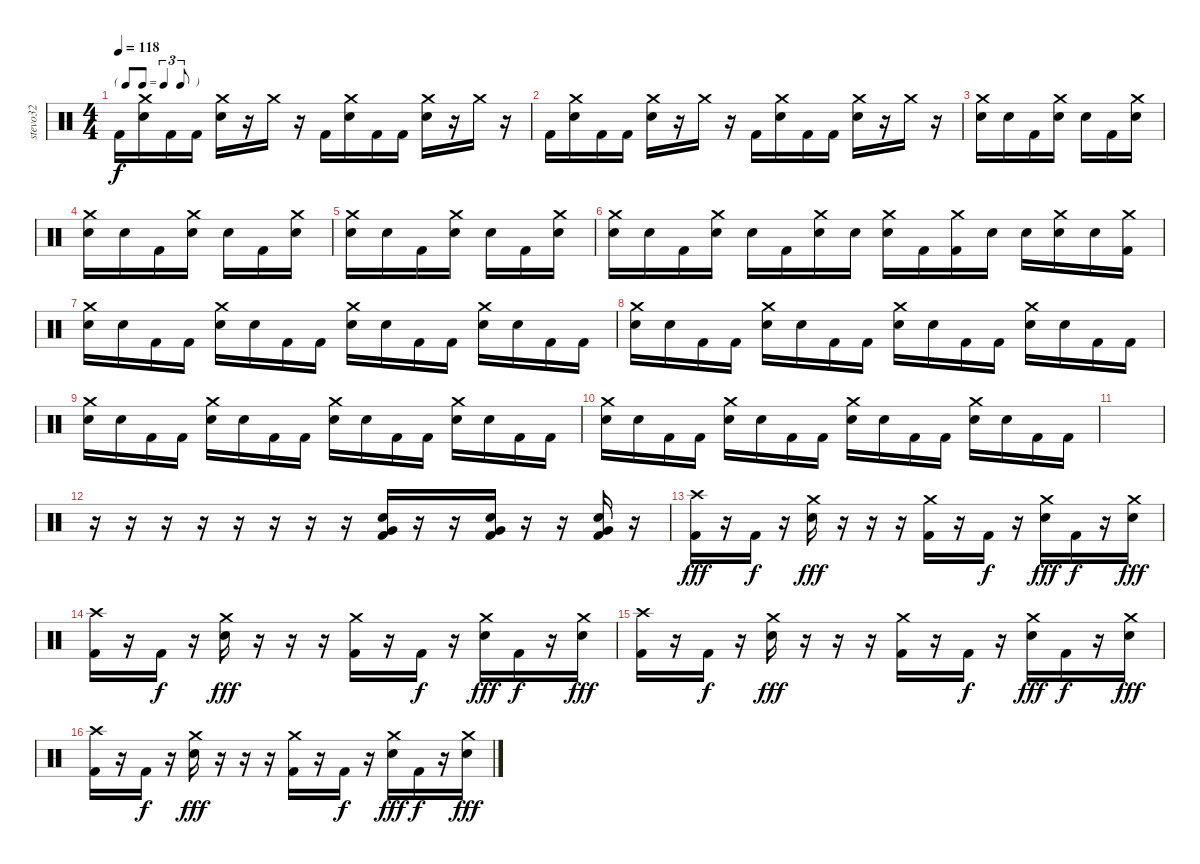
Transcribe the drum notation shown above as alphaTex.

\track ("stevo32" "stevo32") {instrument percussion}
\staff {score}
\articulation defaults
\ts (4 4)
\tf triplet8th
\tempo 118
\clef neutral
\ks c "Kick (hit) 2".16{dy f}
("Crash medium (hit)" "Electric Snare (hit)").16 "Kick (hit) 2".16 "Kick (hit) 2".16 ("Crash medium (hit)" "Electric Snare (hit)").16 r.16 "Crash medium (hit)".16 r.16 "Kick (hit) 2".16 ("Crash medium (hit)" "Electric Snare (hit)").16 "Kick (hit) 2".16 "Kick (hit) 2".16 ("Crash medium (hit)" "Electric Snare (hit)").16 r.16 "Crash medium (hit)".16 r.16 |
"Kick (hit) 2".16 ("Crash medium (hit)" "Electric Snare (hit)").16 "Kick (hit) 2".16 "Kick (hit) 2".16 ("Crash medium (hit)" "Electric Snare (hit)").16 r.16 "Crash medium (hit)".16 r.16 "Kick (hit) 2".16 ("Crash medium (hit)" "Electric Snare (hit)").16 "Kick (hit) 2".16 "Kick (hit) 2".16 ("Crash medium (hit)" "Electric Snare (hit)").16 r.16 "Crash medium (hit)".16 r.16 |
("Crash medium (hit)" "Electric Snare (hit)").16 "Electric Snare (hit)".16 "Kick (hit) 2".16 ("Crash medium (hit)" "Electric Snare (hit)").16 "Electric Snare (hit)".16 "Kick (hit) 2".16 ("Crash medium (hit)" "Electric Snare (hit)").16 |
("Crash medium (hit)" "Electric Snare (hit)").16 "Electric Snare (hit)".16 "Kick (hit) 2".16 ("Crash medium (hit)" "Electric Snare (hit)").16 "Electric Snare (hit)".16 "Kick (hit) 2".16 ("Crash medium (hit)" "Electric Snare (hit)").16 |
("Crash medium (hit)" "Electric Snare (hit)").16 "Electric Snare (hit)".16 "Kick (hit) 2".16 ("Crash medium (hit)" "Electric Snare (hit)").16 "Electric Snare (hit)".16 "Kick (hit) 2".16 ("Crash medium (hit)" "Electric Snare (hit)").16 |
("Crash medium (hit)" "Electric Snare (hit)").16 "Electric Snare (hit)".16 "Kick (hit) 2".16 ("Crash medium (hit)" "Electric Snare (hit)").16 "Electric Snare (hit)".16 "Kick (hit) 2".16 ("Crash medium (hit)" "Electric Snare (hit)").16 "Electric Snare (hit)".16 ("Crash medium (hit)" "Electric Snare (hit)").16 "Kick (hit) 2".16 ("Crash medium (hit)" "Kick (hit) 2").16 "Electric Snare (hit)".16 "Electric Snare (hit)".16 ("Crash medium (hit)" "Electric Snare (hit)").16 "Electric Snare (hit)".16 ("Crash medium (hit)" "Kick (hit) 2").16 |
("Crash medium (hit)" "Electric Snare (hit)").16 "Electric Snare (hit)".16 "Kick (hit) 2".16 "Kick (hit) 2".16 ("Crash medium (hit)" "Electric Snare (hit)").16 "Electric Snare (hit)".16 "Kick (hit) 2".16 "Kick (hit) 2".16 ("Crash medium (hit)" "Electric Snare (hit)").16 "Electric Snare (hit)".16 "Kick (hit) 2".16 "Kick (hit) 2".16 ("Crash medium (hit)" "Electric Snare (hit)").16 "Electric Snare (hit)".16 "Kick (hit) 2".16 "Kick (hit) 2".16 |
("Crash medium (hit)" "Electric Snare (hit)").16 "Electric Snare (hit)".16 "Kick (hit) 2".16 "Kick (hit) 2".16 ("Crash medium (hit)" "Electric Snare (hit)").16 "Electric Snare (hit)".16 "Kick (hit) 2".16 "Kick (hit) 2".16 ("Crash medium (hit)" "Electric Snare (hit)").16 "Electric Snare (hit)".16 "Kick (hit) 2".16 "Kick (hit) 2".16 ("Crash medium (hit)" "Electric Snare (hit)").16 "Electric Snare (hit)".16 "Kick (hit) 2".16 "Kick (hit) 2".16 |
("Crash medium (hit)" "Electric Snare (hit)").16 "Electric Snare (hit)".16 "Kick (hit) 2".16 "Kick (hit) 2".16 ("Crash medium (hit)" "Electric Snare (hit)").16 "Electric Snare (hit)".16 "Kick (hit) 2".16 "Kick (hit) 2".16 ("Crash medium (hit)" "Electric Snare (hit)").16 "Electric Snare (hit)".16 "Kick (hit) 2".16 "Kick (hit) 2".16 ("Crash medium (hit)" "Electric Snare (hit)").16 "Electric Snare (hit)".16 "Kick (hit) 2".16 "Kick (hit) 2".16 |
("Crash medium (hit)" "Electric Snare (hit)").16 "Electric Snare (hit)".16 "Kick (hit) 2".16 "Kick (hit) 2".16 ("Crash medium (hit)" "Electric Snare (hit)").16 "Electric Snare (hit)".16 "Kick (hit) 2".16 "Kick (hit) 2".16 ("Crash medium (hit)" "Electric Snare (hit)").16 "Electric Snare (hit)".16 "Kick (hit) 2".16 "Kick (hit) 2".16 ("Crash medium (hit)" "Electric Snare (hit)").16 "Electric Snare (hit)".16 "Kick (hit) 2".16 "Kick (hit) 2".16 |
|
r.16 r.16 r.16 r.16 r.16 r.16 r.16 r.16 ("Very Low Tom (hit)" "Electric Snare (hit)" "Kick (hit) 2").16 r.16 r.16 ("Very Low Tom (hit)" "Electric Snare (hit)" "Kick (hit) 2").16 r.16 r.16 ("Very Low Tom (hit)" "Electric Snare (hit)" "Kick (hit) 2").16 r.16 |
("Crash high (hit)" "Kick (hit) 2").16{dy fff} r.16 "Kick (hit) 2".16{dy f} r.16 ("Crash medium (hit)" "Electric Snare (hit)").16{dy fff} r.16 r.16 r.16 ("Crash medium (hit)" "Kick (hit) 2").16 r.16 "Kick (hit) 2".16{dy f} r.16 ("Crash medium (hit)" "Electric Snare (hit)").16{dy fff} "Kick (hit) 2".16{dy f} r.16 ("Crash medium (hit)" "Electric Snare (hit)").16{dy fff} |
("Crash high (hit)" "Kick (hit) 2").16 r.16 "Kick (hit) 2".16{dy f} r.16 ("Crash medium (hit)" "Electric Snare (hit)").16{dy fff} r.16 r.16 r.16 ("Crash medium (hit)" "Kick (hit) 2").16 r.16 "Kick (hit) 2".16{dy f} r.16 ("Crash medium (hit)" "Electric Snare (hit)").16{dy fff} "Kick (hit) 2".16{dy f} r.16 ("Crash medium (hit)" "Electric Snare (hit)").16{dy fff} |
("Crash high (hit)" "Kick (hit) 2").16 r.16 "Kick (hit) 2".16{dy f} r.16 ("Crash medium (hit)" "Electric Snare (hit)").16{dy fff} r.16 r.16 r.16 ("Crash medium (hit)" "Kick (hit) 2").16 r.16 "Kick (hit) 2".16{dy f} r.16 ("Crash medium (hit)" "Electric Snare (hit)").16{dy fff} "Kick (hit) 2".16{dy f} r.16 ("Crash medium (hit)" "Electric Snare (hit)").16{dy fff} |
("Crash high (hit)" "Kick (hit) 2").16 r.16 "Kick (hit) 2".16{dy f} r.16 ("Crash medium (hit)" "Electric Snare (hit)").16{dy fff} r.16 r.16 r.16 ("Crash medium (hit)" "Kick (hit) 2").16 r.16 "Kick (hit) 2".16{dy f} r.16 ("Crash medium (hit)" "Electric Snare (hit)").16{dy fff} "Kick (hit) 2".16{dy f} r.16 ("Crash medium (hit)" "Electric Snare (hit)").16{dy fff}
